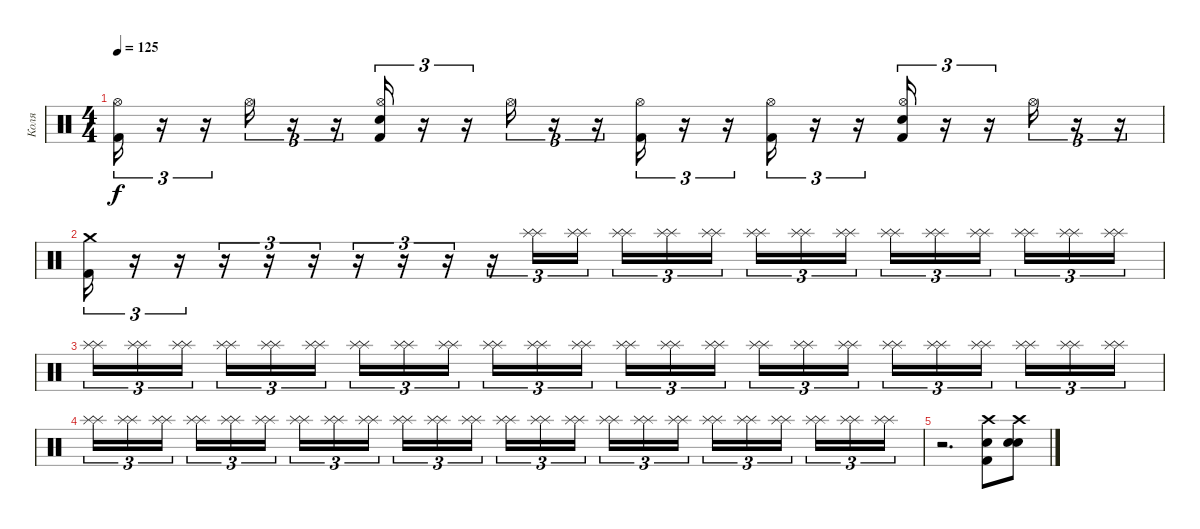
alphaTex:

\track ("Коля" "Коля") {instrument percussion}
\staff {score}
\articulation defaults
\ts (4 4)
\tempo 125
\clef neutral
\ks c
("Kick (hit) 2" "Hi-Hat (open)").16{tu (3 2) dy f} r.16{tu (3 2)} r.16{tu (3 2)} "Hi-Hat (open)".16{tu (3 2)} r.16{tu (3 2)} r.16{tu (3 2)} ("Kick (hit) 2" "Snare (hit) 2" "Hi-Hat (open)").16{tu (3 2)} r.16{tu (3 2)} r.16{tu (3 2)} "Hi-Hat (open)".16{tu (3 2)} r.16{tu (3 2)} r.16{tu (3 2)} ("Kick (hit) 2" "Hi-Hat (open)").16{tu (3 2)} r.16{tu (3 2)} r.16{tu (3 2)} ("Kick (hit) 2" "Hi-Hat (open)").16{tu (3 2)} r.16{tu (3 2)} r.16{tu (3 2)} ("Kick (hit) 2" "Snare (hit) 2" "Hi-Hat (open)").16{tu (3 2)} r.16{tu (3 2)} r.16{tu (3 2)} "Hi-Hat (open)".16{tu (3 2)} r.16{tu (3 2)} r.16{tu (3 2)} |
("Kick (hit) 2" "Crash medium (hit)").16{tu (3 2)} r.16{tu (3 2)} r.16{tu (3 2)} r.16{tu (3 2)} r.16{tu (3 2)} r.16{tu (3 2)} r.16{tu (3 2)} r.16{tu (3 2)} r.16{tu (3 2)} r.16{tu (3 2)} ("Splash (hit)" "Splash (hit)").16{tu (3 2)} ("Splash (hit)" "Splash (hit)").16{tu (3 2)} ("Splash (hit)" "Splash (hit)").16{tu (3 2)} ("Splash (hit)" "Splash (hit)").16{tu (3 2)} ("Splash (hit)" "Splash (hit)").16{tu (3 2) beam splitsecondary} ("Splash (hit)" "Splash (hit)").16{tu (3 2)} ("Splash (hit)" "Splash (hit)").16{tu (3 2)} ("Splash (hit)" "Splash (hit)").16{tu (3 2)} ("Splash (hit)" "Splash (hit)").16{tu (3 2)} ("Splash (hit)" "Splash (hit)").16{tu (3 2)} ("Splash (hit)" "Splash (hit)").16{tu (3 2) beam splitsecondary} ("Splash (hit)" "Splash (hit)").16{tu (3 2)} ("Splash (hit)" "Splash (hit)").16{tu (3 2)} ("Splash (hit)" "Splash (hit)").16{tu (3 2)} |
("Splash (hit)" "Splash (hit)").16{tu (3 2)} ("Splash (hit)" "Splash (hit)").16{tu (3 2)} ("Splash (hit)" "Splash (hit)").16{tu (3 2) beam splitsecondary} ("Splash (hit)" "Splash (hit)").16{tu (3 2)} ("Splash (hit)" "Splash (hit)").16{tu (3 2)} ("Splash (hit)" "Splash (hit)").16{tu (3 2)} ("Splash (hit)" "Splash (hit)").16{tu (3 2)} ("Splash (hit)" "Splash (hit)").16{tu (3 2)} ("Splash (hit)" "Splash (hit)").16{tu (3 2) beam splitsecondary} ("Splash (hit)" "Splash (hit)").16{tu (3 2)} ("Splash (hit)" "Splash (hit)").16{tu (3 2)} ("Splash (hit)" "Splash (hit)").16{tu (3 2)} ("Splash (hit)" "Splash (hit)").16{tu (3 2)} ("Splash (hit)" "Splash (hit)").16{tu (3 2)} ("Splash (hit)" "Splash (hit)").16{tu (3 2) beam splitsecondary} ("Splash (hit)" "Splash (hit)").16{tu (3 2)} ("Splash (hit)" "Splash (hit)").16{tu (3 2)} ("Splash (hit)" "Splash (hit)").16{tu (3 2)} ("Splash (hit)" "Splash (hit)").16{tu (3 2)} ("Splash (hit)" "Splash (hit)").16{tu (3 2)} ("Splash (hit)" "Splash (hit)").16{tu (3 2) beam splitsecondary} ("Splash (hit)" "Splash (hit)").16{tu (3 2)} ("Splash (hit)" "Splash (hit)").16{tu (3 2)} ("Splash (hit)" "Splash (hit)").16{tu (3 2)} |
("Splash (hit)" "Splash (hit)").16{tu (3 2)} ("Splash (hit)" "Splash (hit)").16{tu (3 2)} ("Splash (hit)" "Splash (hit)").16{tu (3 2) beam splitsecondary} ("Splash (hit)" "Splash (hit)").16{tu (3 2)} ("Splash (hit)" "Splash (hit)").16{tu (3 2)} ("Splash (hit)" "Splash (hit)").16{tu (3 2)} ("Splash (hit)" "Splash (hit)").16{tu (3 2)} ("Splash (hit)" "Splash (hit)").16{tu (3 2)} ("Splash (hit)" "Splash (hit)").16{tu (3 2) beam splitsecondary} ("Splash (hit)" "Splash (hit)").16{tu (3 2)} ("Splash (hit)" "Splash (hit)").16{tu (3 2)} ("Splash (hit)" "Splash (hit)").16{tu (3 2)} ("Splash (hit)" "Splash (hit)").16{tu (3 2)} ("Splash (hit)" "Splash (hit)").16{tu (3 2)} ("Splash (hit)" "Splash (hit)").16{tu (3 2) beam splitsecondary} ("Splash (hit)" "Splash (hit)").16{tu (3 2)} ("Splash (hit)" "Splash (hit)").16{tu (3 2)} ("Splash (hit)" "Splash (hit)").16{tu (3 2)} ("Splash (hit)" "Splash (hit)").16{tu (3 2)} ("Splash (hit)" "Splash (hit)").16{tu (3 2)} ("Splash (hit)" "Splash (hit)").16{tu (3 2) beam splitsecondary} ("Splash (hit)" "Splash (hit)").16{tu (3 2)} ("Splash (hit)" "Splash (hit)").16{tu (3 2)} ("Splash (hit)" "Splash (hit)").16{tu (3 2)} |
r.2{d} ("Kick (hit) 2" "Snare (hit) 2" "Crash high (hit)").8 ("Snare (hit) 2" "Snare (hit) 2" "Crash high (hit)").8
